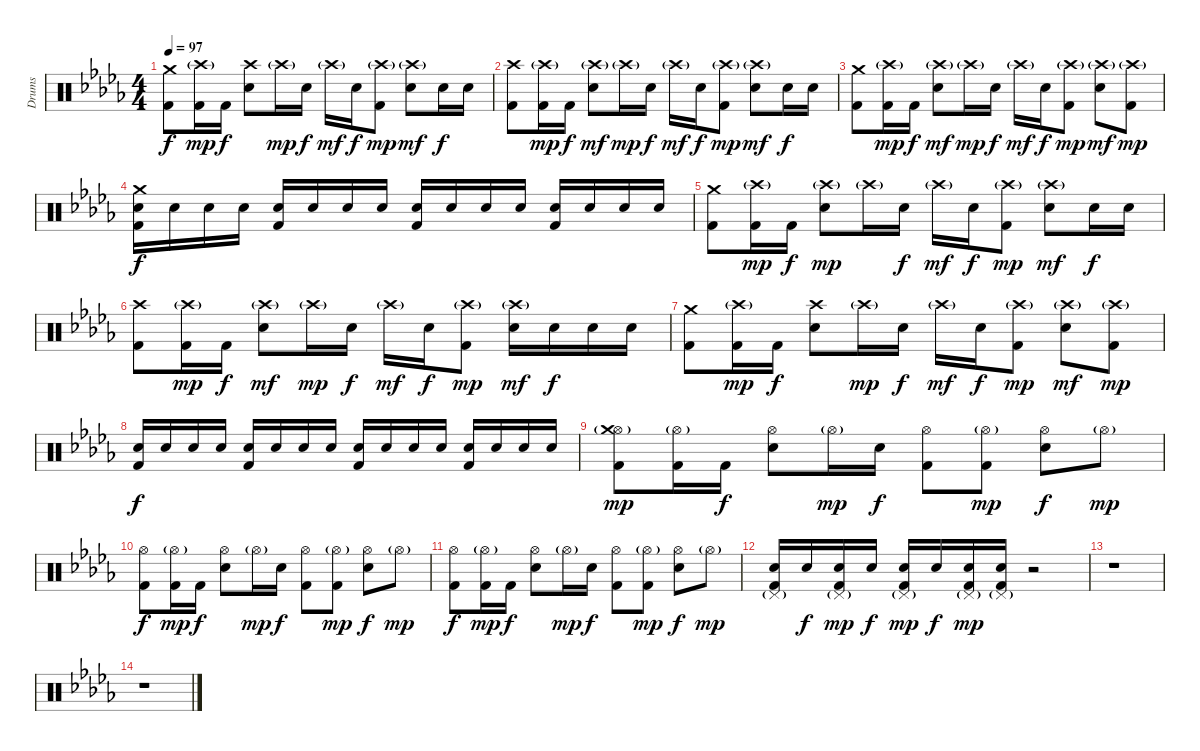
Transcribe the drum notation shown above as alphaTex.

\track ("Drums" "Drums") {instrument percussion}
\staff {score}
\articulation defaults
\ts (4 4)
\tempo 97
\clef neutral
\ks db
("Crash medium (hit)" "Kick (hit) 2").8{dy f} ("Crash high (hit)"{g} "Kick (hit) 2").16{dy mp} "Kick (hit) 2".16{dy f} ("Crash high (hit)" "Electric Snare (hit)").8 "Crash high (hit)"{g}.16{dy mp} "Electric Snare (hit)".16{dy f} "Crash high (hit)"{g}.16{dy mf} "Electric Snare (hit)".16{dy f} ("Crash high (hit)"{g} "Kick (hit) 2").8{dy mp} ("Crash high (hit)"{g} "Electric Snare (hit)").8{dy mf} "Electric Snare (hit)".16{dy f} "Electric Snare (hit)".16 |
("Crash high (hit)" "Kick (hit) 2").8 ("Crash high (hit)"{g} "Kick (hit) 2").16{dy mp} "Kick (hit) 2".16{dy f} ("Crash high (hit)"{g} "Electric Snare (hit)").8{dy mf} "Crash high (hit)"{g}.16{dy mp} "Electric Snare (hit)".16{dy f} "Crash high (hit)"{g}.16{dy mf} "Electric Snare (hit)".16{dy f} ("Crash high (hit)"{g} "Kick (hit) 2").8{dy mp} ("Crash high (hit)"{g} "Electric Snare (hit)").8{dy mf} "Electric Snare (hit)".16{dy f} "Electric Snare (hit)".16 |
("Crash medium (hit)" "Kick (hit) 2").8 ("Crash high (hit)"{g} "Kick (hit) 2").16{dy mp} "Kick (hit) 2".16{dy f} ("Crash high (hit)"{g} "Electric Snare (hit)").8{dy mf} "Crash high (hit)"{g}.16{dy mp} "Electric Snare (hit)".16{dy f} "Crash high (hit)"{g}.16{dy mf} "Electric Snare (hit)".16{dy f} ("Crash high (hit)"{g} "Kick (hit) 2").8{dy mp} ("Crash high (hit)"{g} "Electric Snare (hit)").8{dy mf} ("Crash high (hit)"{g} "Kick (hit) 2").8{dy mp} |
("Crash medium (hit)" "Electric Snare (hit)" "Kick (hit) 2").16{dy f} "Electric Snare (hit)".16 "Electric Snare (hit)".16 "Electric Snare (hit)".16 ("Electric Snare (hit)" "Kick (hit) 2").16 "Electric Snare (hit)".16 "Electric Snare (hit)".16 "Electric Snare (hit)".16 ("Electric Snare (hit)" "Kick (hit) 2").16 "Electric Snare (hit)".16 "Electric Snare (hit)".16 "Electric Snare (hit)".16 ("Electric Snare (hit)" "Kick (hit) 2").16 "Electric Snare (hit)".16 "Electric Snare (hit)".16 "Electric Snare (hit)".16 |
("Crash medium (hit)" "Kick (hit) 2").8 ("Crash high (hit)"{g} "Kick (hit) 2").16{dy mp} "Kick (hit) 2".16{dy f} ("Crash high (hit)"{g} "Electric Snare (hit)").8{dy mp} "Crash high (hit)"{g}.16 "Electric Snare (hit)".16{dy f} "Crash high (hit)"{g}.16{dy mf} "Electric Snare (hit)".16{dy f} ("Crash high (hit)"{g} "Kick (hit) 2").8{dy mp} ("Crash high (hit)"{g} "Electric Snare (hit)").8{dy mf} "Electric Snare (hit)".16{dy f} "Electric Snare (hit)".16 |
("Crash high (hit)" "Kick (hit) 2").8 ("Crash high (hit)"{g} "Kick (hit) 2").16{dy mp} "Kick (hit) 2".16{dy f} ("Crash high (hit)"{g} "Electric Snare (hit)").8{dy mf} "Crash high (hit)"{g}.16{dy mp} "Electric Snare (hit)".16{dy f} "Crash high (hit)"{g}.16{dy mf} "Electric Snare (hit)".16{dy f} ("Crash high (hit)"{g} "Kick (hit) 2").8{dy mp} ("Crash high (hit)"{g} "Electric Snare (hit)").16{dy mf} "Electric Snare (hit)".16{dy f} "Electric Snare (hit)".16 "Electric Snare (hit)".16 |
("Crash medium (hit)" "Kick (hit) 2").8 ("Crash high (hit)"{g} "Kick (hit) 2").16{dy mp} "Kick (hit) 2".16{dy f} ("Crash high (hit)" "Electric Snare (hit)").8 "Crash high (hit)"{g}.16{dy mp} "Electric Snare (hit)".16{dy f} "Crash high (hit)"{g}.16{dy mf} "Electric Snare (hit)".16{dy f} ("Crash high (hit)"{g} "Kick (hit) 2").8{dy mp} ("Crash high (hit)"{g} "Electric Snare (hit)").8{dy mf} ("Crash high (hit)"{g} "Kick (hit) 2").8{dy mp} |
("Electric Snare (hit)" "Kick (hit) 2").16{dy f} "Electric Snare (hit)".16 "Electric Snare (hit)".16 "Electric Snare (hit)".16 ("Electric Snare (hit)" "Kick (hit) 2").16 "Electric Snare (hit)".16 "Electric Snare (hit)".16 "Electric Snare (hit)".16 ("Electric Snare (hit)" "Kick (hit) 2").16 "Electric Snare (hit)".16 "Electric Snare (hit)".16 "Electric Snare (hit)".16 ("Electric Snare (hit)" "Kick (hit) 2").16 "Electric Snare (hit)".16 "Electric Snare (hit)".16 "Electric Snare (hit)".16 |
("Hi-Hat (open)"{g} "Crash medium (hit)" "Kick (hit) 2").8{dy mp} ("Hi-Hat (open)"{g} "Kick (hit) 2").16 "Kick (hit) 2".16{dy f} ("Hi-Hat (open)" "Electric Snare (hit)").8 "Hi-Hat (open)"{g}.16{dy mp} "Electric Snare (hit)".16{dy f} ("Hi-Hat (open)" "Kick (hit) 2").8 ("Hi-Hat (open)"{g} "Kick (hit) 2").8{dy mp} ("Hi-Hat (open)" "Electric Snare (hit)").8{dy f} "Hi-Hat (open)"{g}.8{dy mp} |
("Hi-Hat (open)" "Kick (hit) 2").8{dy f} ("Hi-Hat (open)"{g} "Kick (hit) 2").16{dy mp} "Kick (hit) 2".16{dy f} ("Hi-Hat (open)" "Electric Snare (hit)").8 "Hi-Hat (open)"{g}.16{dy mp} "Electric Snare (hit)".16{dy f} ("Hi-Hat (open)" "Kick (hit) 2").8 ("Hi-Hat (open)"{g} "Kick (hit) 2").8{dy mp} ("Hi-Hat (open)" "Electric Snare (hit)").8{dy f} "Hi-Hat (open)"{g}.8{dy mp} |
("Hi-Hat (open)" "Kick (hit) 2").8{dy f} ("Hi-Hat (open)"{g} "Kick (hit) 2").16{dy mp} "Kick (hit) 2".16{dy f} ("Hi-Hat (open)" "Electric Snare (hit)").8 "Hi-Hat (open)"{g}.16{dy mp} "Electric Snare (hit)".16{dy f} ("Hi-Hat (open)" "Kick (hit) 2").8 ("Hi-Hat (open)"{g} "Kick (hit) 2").8{dy mp} ("Hi-Hat (open)" "Electric Snare (hit)").8{dy f} "Hi-Hat (open)"{g}.8{dy mp} |
("Kick (hit) 2" "Electric Snare (hit)" "Pedal Hi-Hat (hit)"{g}).16 "Electric Snare (hit)".16{dy f} ("Kick (hit) 2" "Electric Snare (hit)" "Pedal Hi-Hat (hit)"{g}).16{dy mp} "Electric Snare (hit)".16{dy f} ("Kick (hit) 2" "Electric Snare (hit)" "Pedal Hi-Hat (hit)"{g}).16{dy mp} "Electric Snare (hit)".16{dy f} ("Kick (hit) 2" "Electric Snare (hit)" "Pedal Hi-Hat (hit)"{g}).16{dy mp} ("Kick (hit) 2" "Electric Snare (hit)" "Pedal Hi-Hat (hit)"{g}).16 r.2 |
r.1 |
r.1
